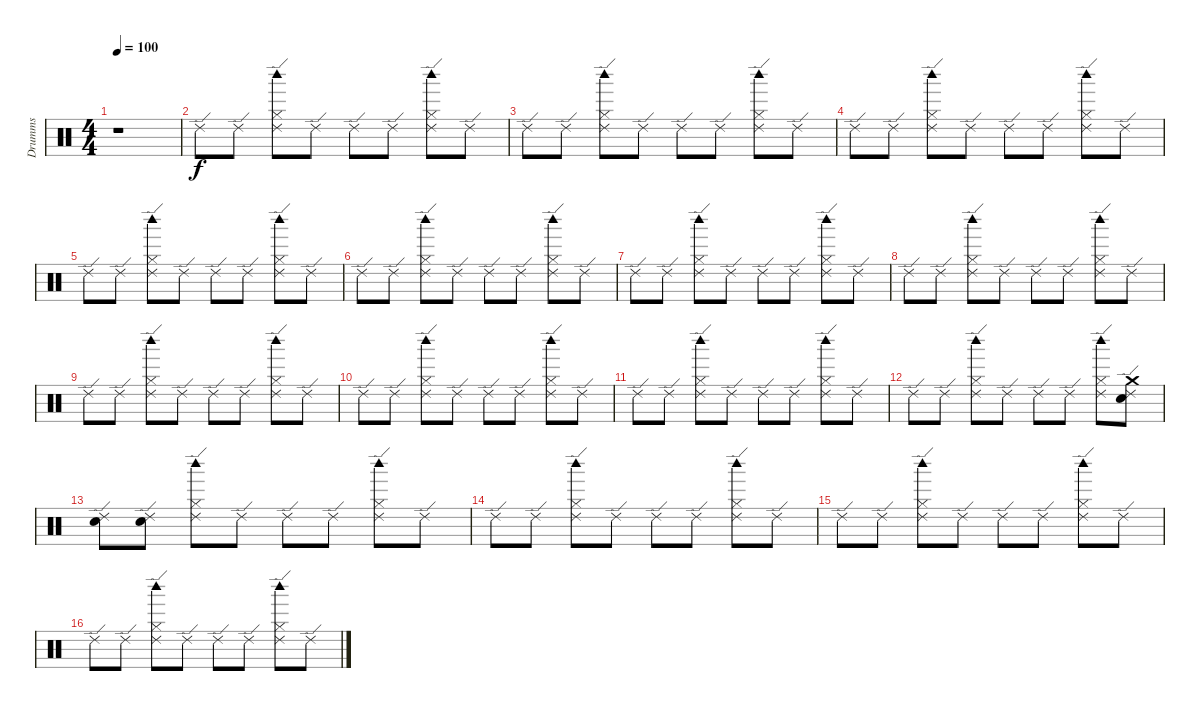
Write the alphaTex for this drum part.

\track ("Drumms" "Drumms") {instrument percussion}
\staff {score}
\articulation defaults
\ts (4 4)
\tempo 100
\clef neutral
\ks c
r.1{dy f} |
"Ride (edge) 2".8 "Ride (edge) 2".8 ("Ride (edge) 2" "Hi-Hat (closed)" "Woodblock high (hit)").8 "Ride (edge) 2".8 "Ride (edge) 2".8 "Ride (edge) 2".8 ("Ride (edge) 2" "Hi-Hat (closed)" "Woodblock high (hit)").8 "Ride (edge) 2".8 |
"Ride (edge) 2".8 "Ride (edge) 2".8 ("Ride (edge) 2" "Hi-Hat (closed)" "Woodblock high (hit)").8 "Ride (edge) 2".8 "Ride (edge) 2".8 "Ride (edge) 2".8 ("Ride (edge) 2" "Hi-Hat (closed)" "Woodblock high (hit)").8 "Ride (edge) 2".8 |
"Ride (edge) 2".8 "Ride (edge) 2".8 ("Ride (edge) 2" "Hi-Hat (closed)" "Woodblock high (hit)").8 "Ride (edge) 2".8 "Ride (edge) 2".8 "Ride (edge) 2".8 ("Ride (edge) 2" "Hi-Hat (closed)" "Woodblock high (hit)").8 "Ride (edge) 2".8 |
"Ride (edge) 2".8 "Ride (edge) 2".8 ("Ride (edge) 2" "Hi-Hat (closed)" "Woodblock high (hit)").8 "Ride (edge) 2".8 "Ride (edge) 2".8 "Ride (edge) 2".8 ("Ride (edge) 2" "Hi-Hat (closed)" "Woodblock high (hit)").8 "Ride (edge) 2".8 |
"Ride (edge) 2".8 "Ride (edge) 2".8 ("Ride (edge) 2" "Hi-Hat (closed)" "Woodblock high (hit)").8 "Ride (edge) 2".8 "Ride (edge) 2".8 "Ride (edge) 2".8 ("Ride (edge) 2" "Hi-Hat (closed)" "Woodblock high (hit)").8 "Ride (edge) 2".8 |
"Ride (edge) 2".8 "Ride (edge) 2".8 ("Ride (edge) 2" "Hi-Hat (closed)" "Woodblock high (hit)").8 "Ride (edge) 2".8 "Ride (edge) 2".8 "Ride (edge) 2".8 ("Ride (edge) 2" "Hi-Hat (closed)" "Woodblock high (hit)").8 "Ride (edge) 2".8 |
"Ride (edge) 2".8 "Ride (edge) 2".8 ("Ride (edge) 2" "Woodblock high (hit)" "Hi-Hat (closed)").8 "Ride (edge) 2".8 "Ride (edge) 2".8 "Ride (edge) 2".8 ("Ride (edge) 2" "Hi-Hat (closed)" "Woodblock high (hit)").8 "Ride (edge) 2".8 |
"Ride (edge) 2".8 "Ride (edge) 2".8 ("Ride (edge) 2" "Hi-Hat (closed)" "Woodblock high (hit)").8 "Ride (edge) 2".8 "Ride (edge) 2".8 "Ride (edge) 2".8 ("Ride (edge) 2" "Hi-Hat (closed)" "Woodblock high (hit)").8 "Ride (edge) 2".8 |
"Ride (edge) 2".8 "Ride (edge) 2".8 ("Ride (edge) 2" "Hi-Hat (closed)" "Woodblock high (hit)").8 "Ride (edge) 2".8 "Ride (edge) 2".8 "Ride (edge) 2".8 ("Ride (edge) 2" "Hi-Hat (closed)" "Woodblock high (hit)").8 "Ride (edge) 2".8 |
"Ride (edge) 2".8 "Ride (edge) 2".8 ("Ride (edge) 2" "Hi-Hat (closed)" "Woodblock high (hit)").8 "Ride (edge) 2".8 "Ride (edge) 2".8 "Ride (edge) 2".8 ("Ride (edge) 2" "Hi-Hat (closed)" "Woodblock high (hit)").8 "Ride (edge) 2".8 |
"Ride (edge) 2".8 "Ride (edge) 2".8 ("Ride (edge) 2" "Hi-Hat (closed)" "Woodblock high (hit)").8 "Ride (edge) 2".8 "Ride (edge) 2".8 "Ride (edge) 2".8 ("Ride (edge) 2" "Hi-Hat (closed)" "Woodblock high (hit)").8 ("Snare (hit) 2" "Crash medium (hit)" "Ride (edge) 2").8 |
("Snare (hit) 2" "Ride (edge) 2").8 ("Snare (hit) 2" "Ride (edge) 2").8 ("Ride (edge) 2" "Hi-Hat (closed)" "Woodblock high (hit)").8 "Ride (edge) 2".8 "Ride (edge) 2".8 "Ride (edge) 2".8 ("Ride (edge) 2" "Hi-Hat (closed)" "Woodblock high (hit)").8 "Ride (edge) 2".8 |
"Ride (edge) 2".8 "Ride (edge) 2".8 ("Ride (edge) 2" "Hi-Hat (closed)" "Woodblock high (hit)").8 "Ride (edge) 2".8 "Ride (edge) 2".8 "Ride (edge) 2".8 ("Ride (edge) 2" "Hi-Hat (closed)" "Woodblock high (hit)").8 "Ride (edge) 2".8 |
"Ride (edge) 2".8 "Ride (edge) 2".8 ("Ride (edge) 2" "Hi-Hat (closed)" "Woodblock high (hit)").8 "Ride (edge) 2".8 "Ride (edge) 2".8 "Ride (edge) 2".8 ("Ride (edge) 2" "Hi-Hat (closed)" "Woodblock high (hit)").8 "Ride (edge) 2".8 |
"Ride (edge) 2".8 "Ride (edge) 2".8 ("Ride (edge) 2" "Hi-Hat (closed)" "Woodblock high (hit)").8 "Ride (edge) 2".8 "Ride (edge) 2".8 "Ride (edge) 2".8 ("Ride (edge) 2" "Hi-Hat (closed)" "Woodblock high (hit)").8 "Ride (edge) 2".8
